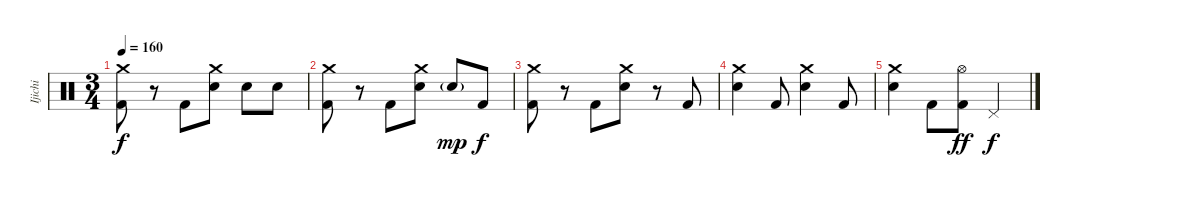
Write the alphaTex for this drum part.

\track ("Ijichi" "Ijichi") {instrument percussion}
\staff {score}
\articulation defaults
\ts (3 4)
\tempo 160
\clef neutral
\ks c
("Kick (hit) 2" "Crash medium (hit)").8{dy f} r.8 "Kick (hit) 2".8 ("Electric Snare (hit)" "Crash medium (hit)").8 "Electric Snare (hit)".8 "Electric Snare (hit)".8 |
("Kick (hit) 2" "Crash medium (hit)").8 r.8 "Kick (hit) 2".8 ("Electric Snare (hit)" "Crash medium (hit)").8 "Electric Snare (hit)"{g}.8{dy mp} "Kick (hit) 2".8{dy f} |
("Kick (hit) 2" "Crash medium (hit)").8 r.8 "Kick (hit) 2".8 ("Electric Snare (hit)" "Crash medium (hit)").8 r.8 "Kick (hit) 2".8 |
("Electric Snare (hit)" "Crash medium (hit)").4 "Kick (hit) 2".8 ("Electric Snare (hit)" "Crash medium (hit)").4 "Kick (hit) 2".8 |
("Electric Snare (hit)" "Crash medium (hit)").4 "Kick (hit) 2".8 ("Kick (hit) 2" "Hi-Hat (open)").8{dy ff} "Pedal Hi-Hat (hit)".4{dy f}
